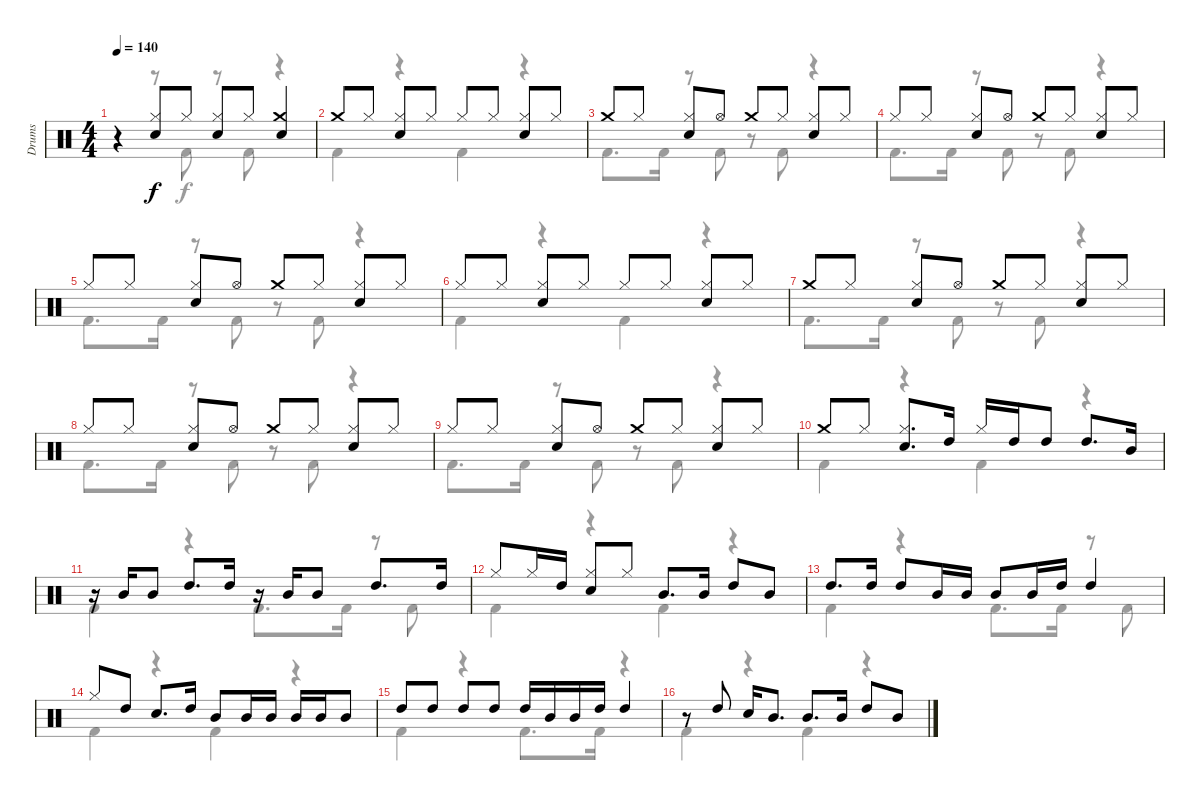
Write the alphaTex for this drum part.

\track ("Drums" "Drums") {instrument percussion}
\staff {score}
\articulation defaults
\voice
\ts (4 4)
\tempo 140
\clef neutral
\ks c
r.4{dy f} ("Hi-Hat (closed)" "Snare (hit) 2").8 "Hi-Hat (closed)".8 ("Hi-Hat (closed)" "Snare (hit) 2").8 "Hi-Hat (closed)".8 ("Crash medium (hit)" "Snare (hit) 2").4 |
"Crash medium (hit)".8 "Hi-Hat (closed)".8 ("Hi-Hat (closed)" "Snare (hit) 2").8 "Hi-Hat (closed)".8 "Hi-Hat (closed)".8 "Hi-Hat (closed)".8 ("Hi-Hat (closed)" "Snare (hit) 2").8 "Hi-Hat (closed)".8 |
"Crash medium (hit)".8 "Hi-Hat (closed)".8 ("Hi-Hat (closed)" "Snare (hit) 2").8 "Hi-Hat (open)".8 "Crash medium (hit)".8 "Hi-Hat (closed)".8 ("Hi-Hat (closed)" "Snare (hit) 2").8 "Hi-Hat (closed)".8 |
"Hi-Hat (closed)".8 "Hi-Hat (closed)".8 ("Hi-Hat (closed)" "Snare (hit) 2").8 "Hi-Hat (open)".8 "Crash medium (hit)".8 "Hi-Hat (closed)".8 ("Hi-Hat (closed)" "Snare (hit) 2").8 "Hi-Hat (closed)".8 |
"Hi-Hat (closed)".8 "Hi-Hat (closed)".8 ("Hi-Hat (closed)" "Snare (hit) 2").8 "Hi-Hat (open)".8 "Crash medium (hit)".8 "Hi-Hat (closed)".8 ("Hi-Hat (closed)" "Snare (hit) 2").8 "Hi-Hat (closed)".8 |
"Hi-Hat (closed)".8 "Hi-Hat (closed)".8 ("Hi-Hat (closed)" "Snare (hit) 2").8 "Hi-Hat (closed)".8 "Hi-Hat (closed)".8 "Hi-Hat (closed)".8 ("Hi-Hat (closed)" "Snare (hit) 2").8 "Hi-Hat (closed)".8 |
"Crash medium (hit)".8 "Hi-Hat (closed)".8 ("Hi-Hat (closed)" "Snare (hit) 2").8 "Hi-Hat (open)".8 "Crash medium (hit)".8 "Hi-Hat (closed)".8 ("Hi-Hat (closed)" "Snare (hit) 2").8 "Hi-Hat (closed)".8 |
"Hi-Hat (closed)".8 "Hi-Hat (closed)".8 ("Hi-Hat (closed)" "Snare (hit) 2").8 "Hi-Hat (open)".8 "Crash medium (hit)".8 "Hi-Hat (closed)".8 ("Hi-Hat (closed)" "Snare (hit) 2").8 "Hi-Hat (closed)".8 |
"Hi-Hat (closed)".8 "Hi-Hat (closed)".8 ("Hi-Hat (closed)" "Snare (hit) 2").8 "Hi-Hat (open)".8 "Crash medium (hit)".8 "Hi-Hat (closed)".8 ("Hi-Hat (closed)" "Snare (hit) 2").8 "Hi-Hat (closed)".8 |
"Crash medium (hit)".8 "Hi-Hat (closed)".8 ("Hi-Hat (closed)" "Snare (hit) 2").8{d} "High Tom (hit)".16 "Hi-Hat (closed)".16 "High Tom (hit)".16 "High Tom (hit)".8 "High Tom (hit)".8{d} "Mid Tom (hit)".16 |
r.16 "Mid Tom (hit)".16 "Mid Tom (hit)".8 "High Tom (hit)".8{d} "High Tom (hit)".16 r.16 "Mid Tom (hit)".16 "Mid Tom (hit)".8 "High Tom (hit)".8{d} "High Tom (hit)".16 |
"Hi-Hat (closed)".8 "Hi-Hat (closed)".16 "High Tom (hit)".16 ("Hi-Hat (closed)" "Snare (hit) 2").8 "Hi-Hat (closed)".8 "Mid Tom (hit)".8{d} "Mid Tom (hit)".16 "High Tom (hit)".8 "Mid Tom (hit)".8 |
"High Tom (hit)".8{d} "High Tom (hit)".16 "High Tom (hit)".8 "Mid Tom (hit)".16 "Mid Tom (hit)".16 "Mid Tom (hit)".8 "Mid Tom (hit)".16 "High Tom (hit)".16 "High Tom (hit)".4 |
"Hi-Hat (closed)".8 "High Tom (hit)".8 "Snare (hit) 2".8{d} "High Tom (hit)".16 "Mid Tom (hit)".8 "Mid Tom (hit)".16 "Mid Tom (hit)".16 "Mid Tom (hit)".16 "Mid Tom (hit)".16 "Mid Tom (hit)".8 |
"High Tom (hit)".8 "High Tom (hit)".8 "High Tom (hit)".8 "High Tom (hit)".8 "High Tom (hit)".16 "Mid Tom (hit)".16 "Mid Tom (hit)".16 "High Tom (hit)".16 "High Tom (hit)".4 |
r.8 "High Tom (hit)".8 "Snare (hit) 2".16 "Mid Tom (hit)".8{d} "Mid Tom (hit)".8{d} "Mid Tom (hit)".16 "High Tom (hit)".8 "Mid Tom (hit)".8
\voice
\clef neutral
\ottava regular
\simile none
\ks c
r.4{dy f} r.8 "Kick (hit) 2".8 r.8 "Kick (hit) 2".8 r.4 |
"Kick (hit) 2".4 r.4 "Kick (hit) 2".4 r.4 |
"Kick (hit) 2".8{d} "Kick (hit) 2".16 r.8 "Kick (hit) 2".8 r.8 "Kick (hit) 2".8 r.4 |
"Kick (hit) 2".8{d} "Kick (hit) 2".16 r.8 "Kick (hit) 2".8 r.8 "Kick (hit) 2".8 r.4 |
"Kick (hit) 2".8{d} "Kick (hit) 2".16 r.8 "Kick (hit) 2".8 r.8 "Kick (hit) 2".8 r.4 |
"Kick (hit) 2".4 r.4 "Kick (hit) 2".4 r.4 |
"Kick (hit) 2".8{d} "Kick (hit) 2".16 r.8 "Kick (hit) 2".8 r.8 "Kick (hit) 2".8 r.4 |
"Kick (hit) 2".8{d} "Kick (hit) 2".16 r.8 "Kick (hit) 2".8 r.8 "Kick (hit) 2".8 r.4 |
"Kick (hit) 2".8{d} "Kick (hit) 2".16 r.8 "Kick (hit) 2".8 r.8 "Kick (hit) 2".8 r.4 |
"Kick (hit) 2".4 r.4 "Kick (hit) 2".4 r.4 |
"Kick (hit) 2".4 r.4 "Kick (hit) 2".8{d} "Kick (hit) 2".16 r.8 "Kick (hit) 2".8 |
"Kick (hit) 2".4 r.4 "Kick (hit) 2".4 r.4 |
"Kick (hit) 2".4 r.4 "Kick (hit) 2".8{d} "Kick (hit) 2".16 r.8 "Kick (hit) 2".8 |
"Kick (hit) 2".4 r.4 "Kick (hit) 2".4 r.4 |
"Kick (hit) 2".4 r.4 "Kick (hit) 2".8{d} "Kick (hit) 2".16 r.4 |
"Kick (hit) 2".4 r.4 "Kick (hit) 2".4 r.4
